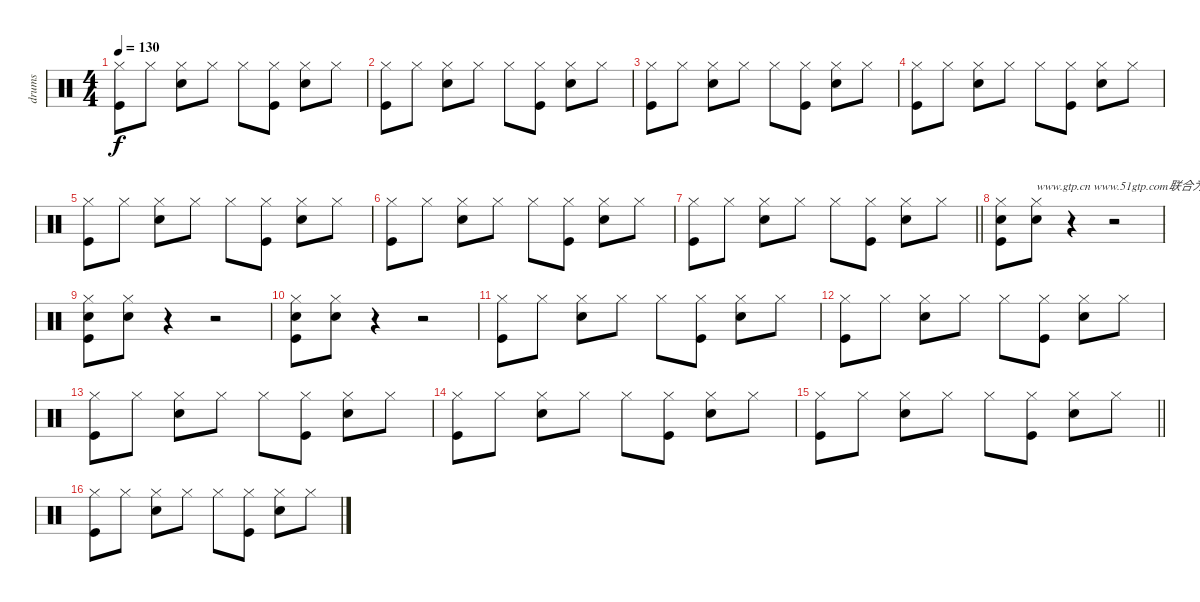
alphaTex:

\track ("drums" "drums") {instrument percussion}
\staff {score}
\articulation defaults
\ts (4 4)
\tempo 130
\clef neutral
\ks c
("Hi-Hat (closed)" "Kick (hit)").8{dy f} "Hi-Hat (closed)".8 ("Hi-Hat (closed)" "Snare (hit) 2").8 "Hi-Hat (closed)".8 "Hi-Hat (closed)".8 ("Hi-Hat (closed)" "Kick (hit)").8 ("Hi-Hat (closed)" "Snare (hit) 2").8 "Hi-Hat (closed)".8 |
("Hi-Hat (closed)" "Kick (hit)").8 "Hi-Hat (closed)".8 ("Hi-Hat (closed)" "Snare (hit) 2").8 "Hi-Hat (closed)".8 "Hi-Hat (closed)".8 ("Hi-Hat (closed)" "Kick (hit)").8 ("Hi-Hat (closed)" "Snare (hit) 2").8 "Hi-Hat (closed)".8 |
("Hi-Hat (closed)" "Kick (hit)").8 "Hi-Hat (closed)".8 ("Hi-Hat (closed)" "Snare (hit) 2").8 "Hi-Hat (closed)".8 "Hi-Hat (closed)".8 ("Hi-Hat (closed)" "Kick (hit)").8 ("Hi-Hat (closed)" "Snare (hit) 2").8 "Hi-Hat (closed)".8 |
("Hi-Hat (closed)" "Kick (hit)").8 "Hi-Hat (closed)".8 ("Hi-Hat (closed)" "Snare (hit) 2").8 "Hi-Hat (closed)".8 "Hi-Hat (closed)".8 ("Hi-Hat (closed)" "Kick (hit)").8 ("Hi-Hat (closed)" "Snare (hit) 2").8 "Hi-Hat (closed)".8 |
("Hi-Hat (closed)" "Kick (hit)").8 "Hi-Hat (closed)".8 ("Hi-Hat (closed)" "Snare (hit) 2").8 "Hi-Hat (closed)".8 "Hi-Hat (closed)".8 ("Hi-Hat (closed)" "Kick (hit)").8 ("Hi-Hat (closed)" "Snare (hit) 2").8 "Hi-Hat (closed)".8 |
("Hi-Hat (closed)" "Kick (hit)").8 "Hi-Hat (closed)".8 ("Hi-Hat (closed)" "Snare (hit) 2").8 "Hi-Hat (closed)".8 "Hi-Hat (closed)".8 ("Hi-Hat (closed)" "Kick (hit)").8 ("Hi-Hat (closed)" "Snare (hit) 2").8 "Hi-Hat (closed)".8 |
\barLineRight lightlight
("Hi-Hat (closed)" "Kick (hit)").8 "Hi-Hat (closed)".8 ("Hi-Hat (closed)" "Snare (hit) 2").8 "Hi-Hat (closed)".8 "Hi-Hat (closed)".8 ("Hi-Hat (closed)" "Kick (hit)").8 ("Hi-Hat (closed)" "Snare (hit) 2").8 "Hi-Hat (closed)".8 |
("Hi-Hat (closed)" "Snare (hit) 2" "Kick (hit)").8 ("Hi-Hat (closed)" "Snare (hit) 2").8{txt "www.gtp.cn www.51gtp.com联合为您提供优秀的GTP!"} r.4 r.2 |
("Hi-Hat (closed)" "Snare (hit) 2" "Kick (hit)").8 ("Hi-Hat (closed)" "Snare (hit) 2").8 r.4 r.2 |
("Hi-Hat (closed)" "Snare (hit) 2" "Kick (hit)").8 ("Hi-Hat (closed)" "Snare (hit) 2").8 r.4 r.2 |
("Hi-Hat (closed)" "Kick (hit)").8 "Hi-Hat (closed)".8 ("Hi-Hat (closed)" "Snare (hit) 2").8 "Hi-Hat (closed)".8 "Hi-Hat (closed)".8 ("Hi-Hat (closed)" "Kick (hit)").8 ("Hi-Hat (closed)" "Snare (hit) 2").8 "Hi-Hat (closed)".8 |
("Hi-Hat (closed)" "Kick (hit)").8 "Hi-Hat (closed)".8 ("Hi-Hat (closed)" "Snare (hit) 2").8 "Hi-Hat (closed)".8 "Hi-Hat (closed)".8 ("Hi-Hat (closed)" "Kick (hit)").8 ("Hi-Hat (closed)" "Snare (hit) 2").8 "Hi-Hat (closed)".8 |
("Hi-Hat (closed)" "Kick (hit)").8 "Hi-Hat (closed)".8 ("Hi-Hat (closed)" "Snare (hit) 2").8 "Hi-Hat (closed)".8 "Hi-Hat (closed)".8 ("Hi-Hat (closed)" "Kick (hit)").8 ("Hi-Hat (closed)" "Snare (hit) 2").8 "Hi-Hat (closed)".8 |
("Hi-Hat (closed)" "Kick (hit)").8 "Hi-Hat (closed)".8 ("Hi-Hat (closed)" "Snare (hit) 2").8 "Hi-Hat (closed)".8 "Hi-Hat (closed)".8 ("Hi-Hat (closed)" "Kick (hit)").8 ("Hi-Hat (closed)" "Snare (hit) 2").8 "Hi-Hat (closed)".8 |
\barLineRight lightlight
("Hi-Hat (closed)" "Kick (hit)").8 "Hi-Hat (closed)".8 ("Hi-Hat (closed)" "Snare (hit) 2").8 "Hi-Hat (closed)".8 "Hi-Hat (closed)".8 ("Hi-Hat (closed)" "Kick (hit)").8 ("Hi-Hat (closed)" "Snare (hit) 2").8 "Hi-Hat (closed)".8 |
("Hi-Hat (closed)" "Kick (hit)").8 "Hi-Hat (closed)".8 ("Hi-Hat (closed)" "Snare (hit) 2").8 "Hi-Hat (closed)".8 "Hi-Hat (closed)".8 ("Hi-Hat (closed)" "Kick (hit)").8 ("Hi-Hat (closed)" "Snare (hit) 2").8 "Hi-Hat (closed)".8
